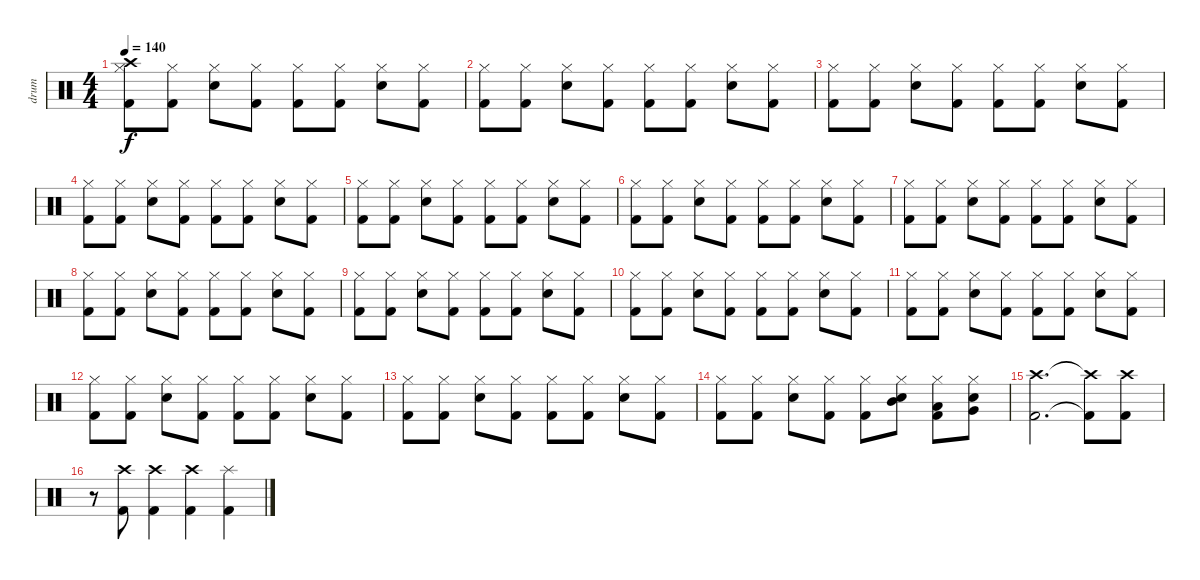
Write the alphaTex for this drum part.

\track ("drum" "drum") {instrument percussion}
\staff {score}
\articulation defaults
\ts (4 4)
\tempo 140
\clef neutral
\ks c
("Crash high (hit)" "Hi-Hat (closed)" "Kick (hit) 2").8{dy f} ("Hi-Hat (closed)" "Kick (hit) 2").8 ("Hi-Hat (closed)" "Electric Snare (hit)").8 ("Hi-Hat (closed)" "Kick (hit) 2").8 ("Hi-Hat (closed)" "Kick (hit) 2").8 ("Hi-Hat (closed)" "Kick (hit) 2").8 ("Hi-Hat (closed)" "Electric Snare (hit)").8 ("Hi-Hat (closed)" "Kick (hit) 2").8 |
("Hi-Hat (closed)" "Kick (hit) 2").8 ("Hi-Hat (closed)" "Kick (hit) 2").8 ("Hi-Hat (closed)" "Electric Snare (hit)").8 ("Hi-Hat (closed)" "Kick (hit) 2").8 ("Hi-Hat (closed)" "Kick (hit) 2").8 ("Hi-Hat (closed)" "Kick (hit) 2").8 ("Hi-Hat (closed)" "Electric Snare (hit)").8 ("Hi-Hat (closed)" "Kick (hit) 2").8 |
("Hi-Hat (closed)" "Kick (hit) 2").8 ("Hi-Hat (closed)" "Kick (hit) 2").8 ("Hi-Hat (closed)" "Electric Snare (hit)").8 ("Hi-Hat (closed)" "Kick (hit) 2").8 ("Hi-Hat (closed)" "Kick (hit) 2").8 ("Hi-Hat (closed)" "Kick (hit) 2").8 ("Hi-Hat (closed)" "Electric Snare (hit)").8 ("Hi-Hat (closed)" "Kick (hit) 2").8 |
("Hi-Hat (closed)" "Kick (hit) 2").8 ("Hi-Hat (closed)" "Kick (hit) 2").8 ("Hi-Hat (closed)" "Electric Snare (hit)").8 ("Hi-Hat (closed)" "Kick (hit) 2").8 ("Hi-Hat (closed)" "Kick (hit) 2").8 ("Hi-Hat (closed)" "Kick (hit) 2").8 ("Hi-Hat (closed)" "Electric Snare (hit)").8 ("Hi-Hat (closed)" "Kick (hit) 2").8 |
("Hi-Hat (closed)" "Kick (hit) 2").8 ("Hi-Hat (closed)" "Kick (hit) 2").8 ("Hi-Hat (closed)" "Electric Snare (hit)").8 ("Hi-Hat (closed)" "Kick (hit) 2").8 ("Hi-Hat (closed)" "Kick (hit) 2").8 ("Hi-Hat (closed)" "Kick (hit) 2").8 ("Hi-Hat (closed)" "Electric Snare (hit)").8 ("Hi-Hat (closed)" "Kick (hit) 2").8 |
("Hi-Hat (closed)" "Kick (hit) 2").8 ("Hi-Hat (closed)" "Kick (hit) 2").8 ("Hi-Hat (closed)" "Electric Snare (hit)").8 ("Hi-Hat (closed)" "Kick (hit) 2").8 ("Hi-Hat (closed)" "Kick (hit) 2").8 ("Hi-Hat (closed)" "Kick (hit) 2").8 ("Hi-Hat (closed)" "Electric Snare (hit)").8 ("Hi-Hat (closed)" "Kick (hit) 2").8 |
("Hi-Hat (closed)" "Kick (hit) 2").8 ("Hi-Hat (closed)" "Kick (hit) 2").8 ("Hi-Hat (closed)" "Electric Snare (hit)").8 ("Hi-Hat (closed)" "Kick (hit) 2").8 ("Hi-Hat (closed)" "Kick (hit) 2").8 ("Hi-Hat (closed)" "Kick (hit) 2").8 ("Hi-Hat (closed)" "Electric Snare (hit)").8 ("Hi-Hat (closed)" "Kick (hit) 2").8 |
("Hi-Hat (closed)" "Kick (hit) 2").8 ("Hi-Hat (closed)" "Kick (hit) 2").8 ("Hi-Hat (closed)" "Electric Snare (hit)").8 ("Hi-Hat (closed)" "Kick (hit) 2").8 ("Hi-Hat (closed)" "Kick (hit) 2").8 ("Hi-Hat (closed)" "Kick (hit) 2").8 ("Hi-Hat (closed)" "Electric Snare (hit)").8 ("Hi-Hat (closed)" "Kick (hit) 2").8 |
("Hi-Hat (closed)" "Kick (hit) 2").8 ("Hi-Hat (closed)" "Kick (hit) 2").8 ("Hi-Hat (closed)" "Electric Snare (hit)").8 ("Hi-Hat (closed)" "Kick (hit) 2").8 ("Hi-Hat (closed)" "Kick (hit) 2").8 ("Hi-Hat (closed)" "Kick (hit) 2").8 ("Hi-Hat (closed)" "Electric Snare (hit)").8 ("Hi-Hat (closed)" "Kick (hit) 2").8 |
("Hi-Hat (closed)" "Kick (hit) 2").8 ("Hi-Hat (closed)" "Kick (hit) 2").8 ("Hi-Hat (closed)" "Electric Snare (hit)").8 ("Hi-Hat (closed)" "Kick (hit) 2").8 ("Hi-Hat (closed)" "Kick (hit) 2").8 ("Hi-Hat (closed)" "Kick (hit) 2").8 ("Hi-Hat (closed)" "Electric Snare (hit)").8 ("Hi-Hat (closed)" "Kick (hit) 2").8 |
("Hi-Hat (closed)" "Kick (hit) 2").8 ("Hi-Hat (closed)" "Kick (hit) 2").8 ("Hi-Hat (closed)" "Electric Snare (hit)").8 ("Hi-Hat (closed)" "Kick (hit) 2").8 ("Hi-Hat (closed)" "Kick (hit) 2").8 ("Hi-Hat (closed)" "Kick (hit) 2").8 ("Hi-Hat (closed)" "Electric Snare (hit)").8 ("Hi-Hat (closed)" "Kick (hit) 2").8 |
("Hi-Hat (closed)" "Kick (hit) 2").8 ("Hi-Hat (closed)" "Kick (hit) 2").8 ("Hi-Hat (closed)" "Electric Snare (hit)").8 ("Hi-Hat (closed)" "Kick (hit) 2").8 ("Hi-Hat (closed)" "Kick (hit) 2").8 ("Hi-Hat (closed)" "Kick (hit) 2").8 ("Hi-Hat (closed)" "Electric Snare (hit)").8 ("Hi-Hat (closed)" "Kick (hit) 2").8 |
("Hi-Hat (closed)" "Kick (hit) 2").8 ("Hi-Hat (closed)" "Kick (hit) 2").8 ("Hi-Hat (closed)" "Electric Snare (hit)").8 ("Hi-Hat (closed)" "Kick (hit) 2").8 ("Hi-Hat (closed)" "Kick (hit) 2").8 ("Hi-Hat (closed)" "Kick (hit) 2").8 ("Hi-Hat (closed)" "Electric Snare (hit)").8 ("Hi-Hat (closed)" "Kick (hit) 2").8 |
("Hi-Hat (closed)" "Kick (hit) 2").8 ("Hi-Hat (closed)" "Kick (hit) 2").8 ("Hi-Hat (closed)" "Electric Snare (hit)").8 ("Hi-Hat (closed)" "Kick (hit) 2").8 ("Hi-Hat (closed)" "Kick (hit) 2").8 ("Mid Tom (hit)" "Hi-Hat (closed)" "Electric Snare (hit)").8 ("Low Tom (hit)" "Hi-Hat (closed)" "Kick (hit) 2").8 ("Very Low Tom (hit)" "Hi-Hat (closed)" "Electric Snare (hit)").8 |
("Crash high (hit)" "Kick (hit) 2").2{d} ("Crash high (hit)"{t} "Kick (hit) 2"{t}).8 ("Crash high (hit)" "Kick (hit) 2").8 |
r.8 ("Crash high (hit)" "Kick (hit) 2").8 ("Crash high (hit)" "Kick (hit) 2").4 ("Crash high (hit)" "Kick (hit) 2").4 ("Splash (hit)" "Kick (hit) 2").4
